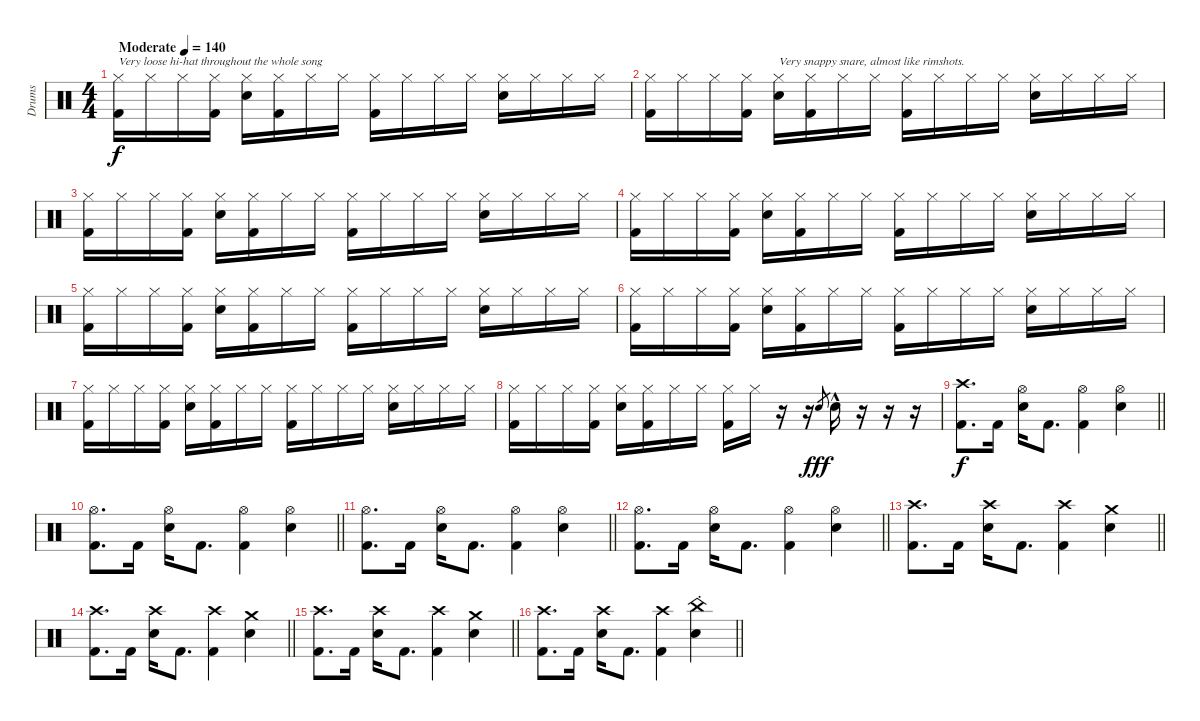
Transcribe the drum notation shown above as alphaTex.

\track ("Drums" "Drums") {instrument percussion}
\staff {score}
\articulation defaults
\ts (4 4)
\tempo (140 "Moderate")
\clef neutral
\ks c
("Hi-Hat (closed)" "Kick (hit) 2").16{txt "Very loose hi-hat throughout the whole song" dy f} "Hi-Hat (closed)".16 "Hi-Hat (closed)".16 ("Hi-Hat (closed)" "Kick (hit) 2").16 ("Hi-Hat (closed)" "Snare (hit) 2").16 ("Hi-Hat (closed)" "Kick (hit) 2").16 "Hi-Hat (closed)".16 "Hi-Hat (closed)".16 ("Hi-Hat (closed)" "Kick (hit) 2").16 "Hi-Hat (closed)".16 "Hi-Hat (closed)".16 "Hi-Hat (closed)".16 ("Hi-Hat (closed)" "Electric Snare (hit)").16 "Hi-Hat (closed)".16 "Hi-Hat (closed)".16 "Hi-Hat (closed)".16 |
("Hi-Hat (closed)" "Kick (hit) 2").16 "Hi-Hat (closed)".16 "Hi-Hat (closed)".16 ("Hi-Hat (closed)" "Kick (hit) 2").16 ("Hi-Hat (closed)" "Electric Snare (hit)").16{txt "Very snappy snare, almost like rimshots."} ("Hi-Hat (closed)" "Kick (hit) 2").16 "Hi-Hat (closed)".16 "Hi-Hat (closed)".16 ("Hi-Hat (closed)" "Kick (hit) 2").16 "Hi-Hat (closed)".16 "Hi-Hat (closed)".16 "Hi-Hat (closed)".16 ("Hi-Hat (closed)" "Electric Snare (hit)").16 "Hi-Hat (closed)".16 "Hi-Hat (closed)".16 "Hi-Hat (closed)".16 |
("Hi-Hat (closed)" "Kick (hit) 2").16 "Hi-Hat (closed)".16 "Hi-Hat (closed)".16 ("Hi-Hat (closed)" "Kick (hit) 2").16 ("Hi-Hat (closed)" "Electric Snare (hit)").16 ("Hi-Hat (closed)" "Kick (hit) 2").16 "Hi-Hat (closed)".16 "Hi-Hat (closed)".16 ("Hi-Hat (closed)" "Kick (hit) 2").16 "Hi-Hat (closed)".16 "Hi-Hat (closed)".16 "Hi-Hat (closed)".16 ("Hi-Hat (closed)" "Electric Snare (hit)").16 "Hi-Hat (closed)".16 "Hi-Hat (closed)".16 "Hi-Hat (closed)".16 |
("Hi-Hat (closed)" "Kick (hit) 2").16 "Hi-Hat (closed)".16 "Hi-Hat (closed)".16 ("Hi-Hat (closed)" "Kick (hit) 2").16 ("Hi-Hat (closed)" "Electric Snare (hit)").16 ("Hi-Hat (closed)" "Kick (hit) 2").16 "Hi-Hat (closed)".16 "Hi-Hat (closed)".16 ("Hi-Hat (closed)" "Kick (hit) 2").16 "Hi-Hat (closed)".16 "Hi-Hat (closed)".16 "Hi-Hat (closed)".16 ("Hi-Hat (closed)" "Electric Snare (hit)").16 "Hi-Hat (closed)".16 "Hi-Hat (closed)".16 "Hi-Hat (closed)".16 |
("Hi-Hat (closed)" "Kick (hit) 2").16 "Hi-Hat (closed)".16 "Hi-Hat (closed)".16 ("Hi-Hat (closed)" "Kick (hit) 2").16 ("Hi-Hat (closed)" "Electric Snare (hit)").16 ("Hi-Hat (closed)" "Kick (hit) 2").16 "Hi-Hat (closed)".16 "Hi-Hat (closed)".16 ("Hi-Hat (closed)" "Kick (hit) 2").16 "Hi-Hat (closed)".16 "Hi-Hat (closed)".16 "Hi-Hat (closed)".16 ("Hi-Hat (closed)" "Electric Snare (hit)").16 "Hi-Hat (closed)".16 "Hi-Hat (closed)".16 "Hi-Hat (closed)".16 |
("Hi-Hat (closed)" "Kick (hit) 2").16 "Hi-Hat (closed)".16 "Hi-Hat (closed)".16 ("Hi-Hat (closed)" "Kick (hit) 2").16 ("Hi-Hat (closed)" "Electric Snare (hit)").16 ("Hi-Hat (closed)" "Kick (hit) 2").16 "Hi-Hat (closed)".16 "Hi-Hat (closed)".16 ("Hi-Hat (closed)" "Kick (hit) 2").16 "Hi-Hat (closed)".16 "Hi-Hat (closed)".16 "Hi-Hat (closed)".16 ("Hi-Hat (closed)" "Electric Snare (hit)").16 "Hi-Hat (closed)".16 "Hi-Hat (closed)".16 "Hi-Hat (closed)".16 |
("Hi-Hat (closed)" "Kick (hit) 2").16 "Hi-Hat (closed)".16 "Hi-Hat (closed)".16 ("Hi-Hat (closed)" "Kick (hit) 2").16 ("Hi-Hat (closed)" "Electric Snare (hit)").16 ("Hi-Hat (closed)" "Kick (hit) 2").16 "Hi-Hat (closed)".16 "Hi-Hat (closed)".16 ("Hi-Hat (closed)" "Kick (hit) 2").16 "Hi-Hat (closed)".16 "Hi-Hat (closed)".16 "Hi-Hat (closed)".16 ("Hi-Hat (closed)" "Electric Snare (hit)").16 "Hi-Hat (closed)".16 "Hi-Hat (closed)".16 "Hi-Hat (closed)".16 |
("Hi-Hat (closed)" "Kick (hit) 2").16 "Hi-Hat (closed)".16 "Hi-Hat (closed)".16 ("Hi-Hat (closed)" "Kick (hit) 2").16 ("Hi-Hat (closed)" "Electric Snare (hit)").16 ("Hi-Hat (closed)" "Kick (hit) 2").16 "Hi-Hat (closed)".16 "Hi-Hat (closed)".16 ("Hi-Hat (closed)" "Kick (hit) 2").16 "Hi-Hat (closed)".16 r.16 r.16 "Electric Snare (hit)".8{gr dy fff} "Electric Snare (hit)"{hac}.16 r.16 r.16 r.16 |
\barLineRight lightlight
("Crash high (hit)" "Kick (hit) 2").8{d dy f} "Kick (hit) 2".16 ("Electric Snare (hit)" "Hi-Hat (open)").16 "Kick (hit) 2".8{d} ("Hi-Hat (open)" "Kick (hit) 2").4 ("Hi-Hat (open)" "Snare (hit) 2").4 |
\barLineRight lightlight
("Hi-Hat (open)" "Kick (hit) 2").8{d} "Kick (hit) 2".16 ("Electric Snare (hit)" "Hi-Hat (open)").16 "Kick (hit) 2".8{d} ("Hi-Hat (open)" "Kick (hit) 2").4 ("Hi-Hat (open)" "Snare (hit) 2").4 |
\barLineRight lightlight
("Hi-Hat (open)" "Kick (hit) 2").8{d} "Kick (hit) 2".16 ("Electric Snare (hit)" "Hi-Hat (open)").16 "Kick (hit) 2".8{d} ("Hi-Hat (open)" "Kick (hit) 2").4 ("Hi-Hat (open)" "Snare (hit) 2").4 |
\barLineRight lightlight
("Hi-Hat (open)" "Kick (hit) 2").8{d} "Kick (hit) 2".16 ("Electric Snare (hit)" "Hi-Hat (open)").16 "Kick (hit) 2".8{d} ("Hi-Hat (open)" "Kick (hit) 2").4 ("Hi-Hat (open)" "Snare (hit) 2").4 |
\barLineRight lightlight
("Crash high (hit)" "Kick (hit) 2").8{d} "Kick (hit) 2".16 ("Electric Snare (hit)" "Crash high (hit)").16 "Kick (hit) 2".8{d} ("Crash high (hit)" "Kick (hit) 2").4 ("Crash medium (hit)" "Snare (hit) 2").4 |
\barLineRight lightlight
("Crash high (hit)" "Kick (hit) 2").8{d} "Kick (hit) 2".16 ("Electric Snare (hit)" "Crash high (hit)").16 "Kick (hit) 2".8{d} ("Crash high (hit)" "Kick (hit) 2").4 ("Crash medium (hit)" "Snare (hit) 2").4 |
\barLineRight lightlight
("Crash high (hit)" "Kick (hit) 2").8{d} "Kick (hit) 2".16 ("Electric Snare (hit)" "Crash high (hit)").16 "Kick (hit) 2".8{d} ("Crash high (hit)" "Kick (hit) 2").4 ("Crash medium (hit)" "Snare (hit) 2").4 |
\barLineRight lightlight
("Crash high (hit)" "Kick (hit) 2").8{d} "Kick (hit) 2".16 ("Electric Snare (hit)" "Crash high (hit)").16 "Kick (hit) 2".8{d} ("Crash high (hit)" "Kick (hit) 2").4 ("China (hit)" "Snare (hit) 2"{st}).4
